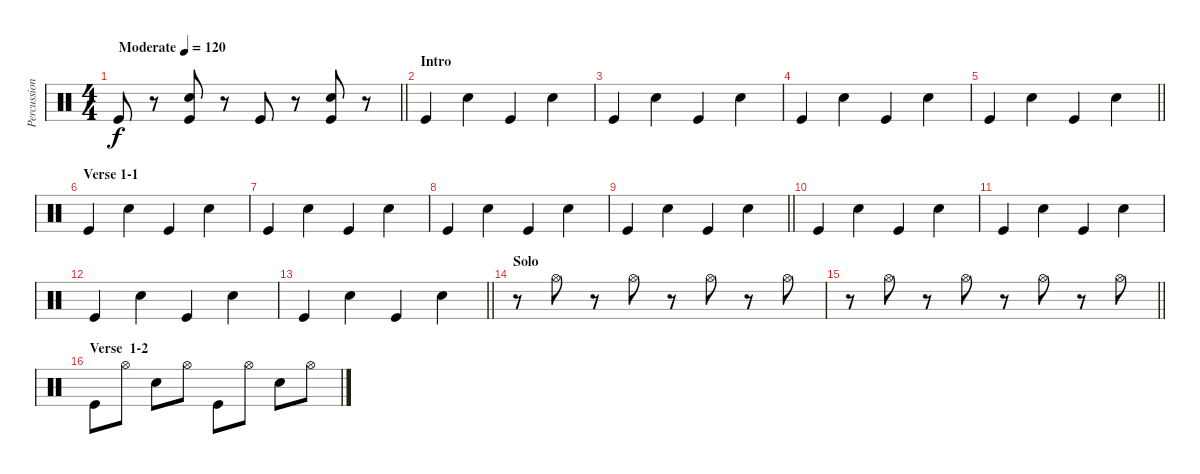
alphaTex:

\track ("Percussion" "Percussion") {instrument percussion}
\staff {score}
\articulation defaults
\ts (4 4)
\tempo (120 "Moderate")
\clef neutral
\barLineRight lightlight
\ks c "Kick (hit)".8{dy f}
r.8 ("Snare (hit) 2" "Kick (hit)").8 r.8 "Kick (hit)".8 r.8 ("Snare (hit) 2" "Kick (hit)").8 r.8 |
\section ("" "Intro")
"Kick (hit)".4 "Snare (hit) 2".4 "Kick (hit)".4 "Snare (hit) 2".4 |
"Kick (hit)".4 "Snare (hit) 2".4 "Kick (hit)".4 "Snare (hit) 2".4 |
"Kick (hit)".4 "Snare (hit) 2".4 "Kick (hit)".4 "Snare (hit) 2".4 |
\barLineRight lightlight "Kick (hit)".4 "Snare (hit) 2".4 "Kick (hit)".4 "Snare (hit) 2".4
|
\section ("" "Verse 1-1")
"Kick (hit)".4 "Snare (hit) 2".4 "Kick (hit)".4 "Snare (hit) 2".4 |
"Kick (hit)".4 "Snare (hit) 2".4 "Kick (hit)".4 "Snare (hit) 2".4 |
"Kick (hit)".4 "Snare (hit) 2".4 "Kick (hit)".4 "Snare (hit) 2".4 |
\barLineRight lightlight "Kick (hit)".4 "Snare (hit) 2".4 "Kick (hit)".4 "Snare (hit) 2".4
|
"Kick (hit)".4 "Snare (hit) 2".4 "Kick (hit)".4 "Snare (hit) 2".4 |
"Kick (hit)".4 "Snare (hit) 2".4 "Kick (hit)".4 "Snare (hit) 2".4 |
"Kick (hit)".4 "Snare (hit) 2".4 "Kick (hit)".4 "Snare (hit) 2".4 |
\barLineRight lightlight "Kick (hit)".4 "Snare (hit) 2".4 "Kick (hit)".4 "Snare (hit) 2".4
|
\section ("" "Solo")
r.8 "Hi-Hat (open)".8 r.8 "Hi-Hat (open)".8 r.8 "Hi-Hat (open)".8 r.8 "Hi-Hat (open)".8 |
\barLineRight lightlight
r.8 "Hi-Hat (open)".8 r.8 "Hi-Hat (open)".8 r.8 "Hi-Hat (open)".8 r.8 "Hi-Hat (open)".8 |
\section ("" "Verse  1-2")
"Kick (hit)".8 "Hi-Hat (open)".8 "Snare (hit) 2".8 "Hi-Hat (open)".8 "Kick (hit)".8 "Hi-Hat (open)".8 "Snare (hit) 2".8 "Hi-Hat (open)".8
